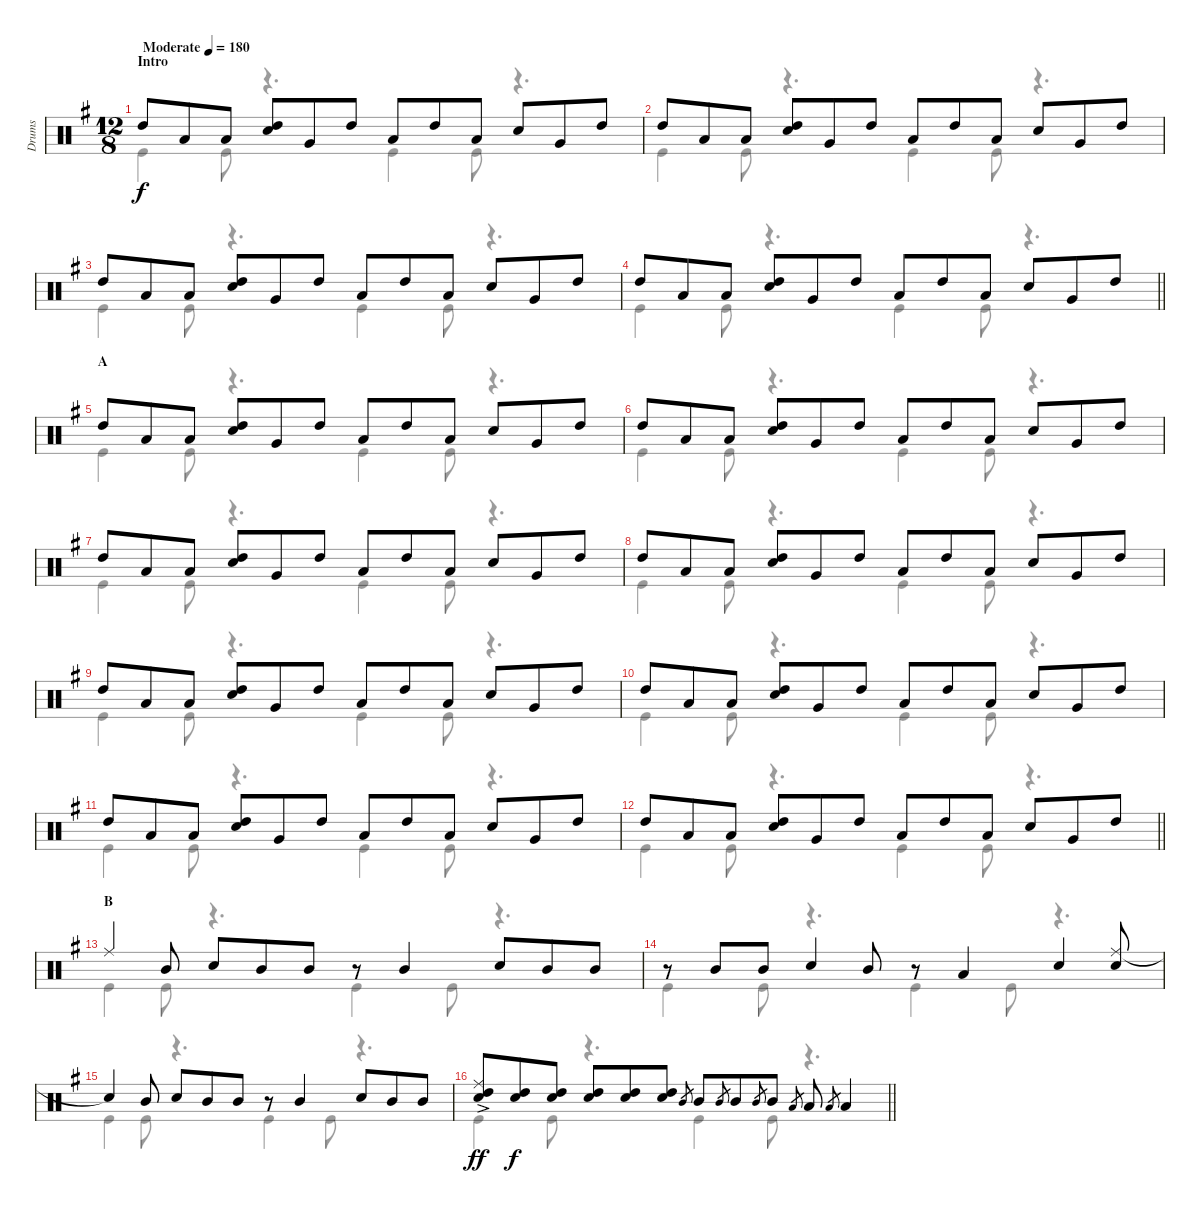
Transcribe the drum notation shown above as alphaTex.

\track ("Drums" "Drums") {instrument percussion}
\staff {score}
\articulation defaults
\voice
\ts (12 8)
\section ("" "Intro")
\tempo (180 "Moderate")
\clef neutral
\ks g "High Tom (hit)".8{dy f} "Low Tom (hit)".8 "Low Tom (hit)".8
("High Tom (hit)" "Snare (hit) 2").8 "Very Low Tom (hit)".8 "High Tom (hit)".8 "Low Tom (hit)".8 "High Tom (hit)".8 "Low Tom (hit)".8 "Snare (hit) 2".8 "Very Low Tom (hit)".8 "High Tom (hit)".8 |
"High Tom (hit)".8 "Low Tom (hit)".8 "Low Tom (hit)".8 ("High Tom (hit)" "Snare (hit) 2").8 "Very Low Tom (hit)".8 "High Tom (hit)".8 "Low Tom (hit)".8 "High Tom (hit)".8 "Low Tom (hit)".8 "Snare (hit) 2".8 "Very Low Tom (hit)".8 "High Tom (hit)".8 |
"High Tom (hit)".8 "Low Tom (hit)".8 "Low Tom (hit)".8 ("High Tom (hit)" "Snare (hit) 2").8 "Very Low Tom (hit)".8 "High Tom (hit)".8 "Low Tom (hit)".8 "High Tom (hit)".8 "Low Tom (hit)".8 "Snare (hit) 2".8 "Very Low Tom (hit)".8 "High Tom (hit)".8 |
\barLineRight lightlight "High Tom (hit)".8 "Low Tom (hit)".8 "Low Tom (hit)".8
("High Tom (hit)" "Snare (hit) 2").8 "Very Low Tom (hit)".8 "High Tom (hit)".8 "Low Tom (hit)".8 "High Tom (hit)".8 "Low Tom (hit)".8 "Snare (hit) 2".8 "Very Low Tom (hit)".8 "High Tom (hit)".8 |
\section ("" "A")
"High Tom (hit)".8 "Low Tom (hit)".8 "Low Tom (hit)".8 ("High Tom (hit)" "Snare (hit) 2").8 "Very Low Tom (hit)".8 "High Tom (hit)".8 "Low Tom (hit)".8 "High Tom (hit)".8 "Low Tom (hit)".8 "Snare (hit) 2".8 "Very Low Tom (hit)".8 "High Tom (hit)".8 |
"High Tom (hit)".8 "Low Tom (hit)".8 "Low Tom (hit)".8 ("High Tom (hit)" "Snare (hit) 2").8 "Very Low Tom (hit)".8 "High Tom (hit)".8 "Low Tom (hit)".8 "High Tom (hit)".8 "Low Tom (hit)".8 "Snare (hit) 2".8 "Very Low Tom (hit)".8 "High Tom (hit)".8 |
"High Tom (hit)".8 "Low Tom (hit)".8 "Low Tom (hit)".8 ("High Tom (hit)" "Snare (hit) 2").8 "Very Low Tom (hit)".8 "High Tom (hit)".8 "Low Tom (hit)".8 "High Tom (hit)".8 "Low Tom (hit)".8 "Snare (hit) 2".8 "Very Low Tom (hit)".8 "High Tom (hit)".8 |
"High Tom (hit)".8 "Low Tom (hit)".8 "Low Tom (hit)".8 ("High Tom (hit)" "Snare (hit) 2").8 "Very Low Tom (hit)".8 "High Tom (hit)".8 "Low Tom (hit)".8 "High Tom (hit)".8 "Low Tom (hit)".8 "Snare (hit) 2".8 "Very Low Tom (hit)".8 "High Tom (hit)".8 |
"High Tom (hit)".8 "Low Tom (hit)".8 "Low Tom (hit)".8 ("High Tom (hit)" "Snare (hit) 2").8 "Very Low Tom (hit)".8 "High Tom (hit)".8 "Low Tom (hit)".8 "High Tom (hit)".8 "Low Tom (hit)".8 "Snare (hit) 2".8 "Very Low Tom (hit)".8 "High Tom (hit)".8 |
"High Tom (hit)".8 "Low Tom (hit)".8 "Low Tom (hit)".8 ("High Tom (hit)" "Snare (hit) 2").8 "Very Low Tom (hit)".8 "High Tom (hit)".8 "Low Tom (hit)".8 "High Tom (hit)".8 "Low Tom (hit)".8 "Snare (hit) 2".8 "Very Low Tom (hit)".8 "High Tom (hit)".8 |
"High Tom (hit)".8 "Low Tom (hit)".8 "Low Tom (hit)".8 ("High Tom (hit)" "Snare (hit) 2").8 "Very Low Tom (hit)".8 "High Tom (hit)".8 "Low Tom (hit)".8 "High Tom (hit)".8 "Low Tom (hit)".8 "Snare (hit) 2".8 "Very Low Tom (hit)".8 "High Tom (hit)".8 |
\barLineRight lightlight "High Tom (hit)".8 "Low Tom (hit)".8 "Low Tom (hit)".8
("High Tom (hit)" "Snare (hit) 2").8 "Very Low Tom (hit)".8 "High Tom (hit)".8 "Low Tom (hit)".8 "High Tom (hit)".8 "Low Tom (hit)".8 "Snare (hit) 2".8 "Very Low Tom (hit)".8 "High Tom (hit)".8 |
\section ("" "B")
"Ride (middle)".4 "Mid Tom (hit)".8 "Snare (hit) 2".8 "Mid Tom (hit)".8 "Mid Tom (hit)".8 r.8 "Mid Tom (hit)".4 "Snare (hit) 2".8 "Mid Tom (hit)".8 "Mid Tom (hit)".8 |
r.8 "Mid Tom (hit)".8 "Mid Tom (hit)".8 "Snare (hit) 2".4 "Mid Tom (hit)".8 r.8 "Low Tom (hit)".4 "Snare (hit) 2".4 ("Ride (middle)" "Snare (hit) 2").8 |
"Snare (hit)"{t}.4 "Mid Tom (hit)".8 "Snare (hit) 2".8 "Mid Tom (hit)".8 "Mid Tom (hit)".8 r.8 "Mid Tom (hit)".4 "Snare (hit) 2".8 "Mid Tom (hit)".8 "Mid Tom (hit)".8 |
\barLineRight lightlight
("High Tom (hit)"{ac} "Snare (hit) 2"{ac} "Ride (middle)"{ac}).8{dy ff} ("High Tom (hit)" "Snare (hit) 2").8{dy f} ("High Tom (hit)" "Snare (hit) 2").8 ("High Tom (hit)" "Snare (hit) 2").8 ("High Tom (hit)" "Snare (hit) 2").8 ("High Tom (hit)" "Snare (hit) 2").8 "Mid Tom (hit)".8{gr} "Mid Tom (hit)".8 "Mid Tom (hit)".8{gr} "Mid Tom (hit)".8 "Mid Tom (hit)".8{gr} "Mid Tom (hit)".8 "Low Tom (hit)".8{gr} "Low Tom (hit)".8 "Low Tom (hit)".8{gr} "Low Tom (hit)".4
\voice
\clef neutral
\ottava regular
\simile none
\ks g "Kick (hit)".4{dy f} "Kick (hit)".8
r.4{d} "Kick (hit)".4 "Kick (hit)".8 r.4{d} |
"Kick (hit)".4 "Kick (hit)".8 r.4{d} "Kick (hit)".4 "Kick (hit)".8 r.4{d} |
"Kick (hit)".4 "Kick (hit)".8 r.4{d} "Kick (hit)".4 "Kick (hit)".8 r.4{d} |
\barLineRight lightlight "Kick (hit)".4 "Kick (hit)".8
r.4{d} "Kick (hit)".4 "Kick (hit)".8 r.4{d} |
"Kick (hit)".4 "Kick (hit)".8 r.4{d} "Kick (hit)".4 "Kick (hit)".8 r.4{d} |
"Kick (hit)".4 "Kick (hit)".8 r.4{d} "Kick (hit)".4 "Kick (hit)".8 r.4{d} |
"Kick (hit)".4 "Kick (hit)".8 r.4{d} "Kick (hit)".4 "Kick (hit)".8 r.4{d} |
"Kick (hit)".4 "Kick (hit)".8 r.4{d} "Kick (hit)".4 "Kick (hit)".8 r.4{d} |
"Kick (hit)".4 "Kick (hit)".8 r.4{d} "Kick (hit)".4 "Kick (hit)".8 r.4{d} |
"Kick (hit)".4 "Kick (hit)".8 r.4{d} "Kick (hit)".4 "Kick (hit)".8 r.4{d} |
"Kick (hit)".4 "Kick (hit)".8 r.4{d} "Kick (hit)".4 "Kick (hit)".8 r.4{d} |
\barLineRight lightlight "Kick (hit)".4 "Kick (hit)".8
r.4{d} "Kick (hit)".4 "Kick (hit)".8 r.4{d} |
"Kick (hit)".4 "Kick (hit)".8 r.4{d} "Kick (hit)".4 "Kick (hit)".8 r.4{d} |
"Kick (hit)".4 "Kick (hit)".8 r.4{d} "Kick (hit)".4 "Kick (hit)".8 r.4{d} |
"Kick (hit)".4 "Kick (hit)".8 r.4{d} "Kick (hit)".4 "Kick (hit)".8 r.4{d} |
\barLineRight lightlight "Kick (hit)".4 "Kick (hit)".8
r.4{d} "Kick (hit)".4 "Kick (hit)".8 r.4{d}
